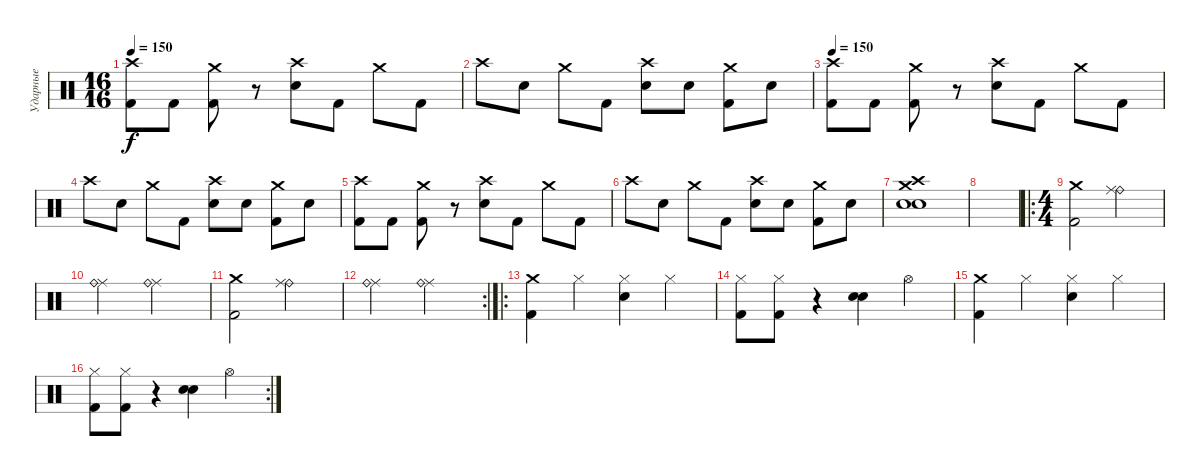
\track ("Ударные" "Ударные") {instrument percussion}
\staff {score}
\articulation defaults
\ts (16 16)
\tempo 150
\clef neutral
\ks c
("Crash high (hit)" "Kick (hit) 2").8{dy f} "Kick (hit) 2".8 ("Crash medium (hit)" "Kick (hit) 2").8 r.8 ("Crash high (hit)" "Electric Snare (hit)").8 "Kick (hit) 2".8 "Crash medium (hit)".8 "Kick (hit) 2".8 |
"Crash high (hit)".8 "Snare (hit) 2".8 "Crash medium (hit)".8 "Kick (hit) 2".8 ("Crash high (hit)" "Electric Snare (hit)").8 "Snare (hit) 2".8 ("Crash medium (hit)" "Kick (hit) 2").8 "Electric Snare (hit)".8 |
\tempo 150
("Crash high (hit)" "Kick (hit) 2").8 "Kick (hit) 2".8 ("Crash medium (hit)" "Kick (hit) 2").8 r.8 ("Crash high (hit)" "Electric Snare (hit)").8 "Kick (hit) 2".8 "Crash medium (hit)".8 "Kick (hit) 2".8 |
"Crash high (hit)".8 "Snare (hit) 2".8 "Crash medium (hit)".8 "Kick (hit) 2".8 ("Crash high (hit)" "Electric Snare (hit)").8 "Snare (hit) 2".8 ("Crash medium (hit)" "Kick (hit) 2").8 "Electric Snare (hit)".8 |
("Crash high (hit)" "Kick (hit) 2").8 "Kick (hit) 2".8 ("Crash medium (hit)" "Kick (hit) 2").8 r.8 ("Crash high (hit)" "Electric Snare (hit)").8 "Kick (hit) 2".8 "Crash medium (hit)".8 "Kick (hit) 2".8 |
"Crash high (hit)".8 "Snare (hit) 2".8 "Crash medium (hit)".8 "Kick (hit) 2".8 ("Crash high (hit)" "Electric Snare (hit)").8 "Snare (hit) 2".8 ("Crash medium (hit)" "Kick (hit) 2").8 "Electric Snare (hit)".8 |
("Crash high (hit)" "Snare (hit) 2" "Crash medium (hit)" "Electric Snare (hit)").1 |
|
\ro
\ts (4 4)
("Crash medium (hit)" "Kick (hit) 2").2 ("Ride (bell)" "Ride (middle)").2 |
("Ride (middle)" "Ride (bell)").2 ("Ride (middle)" "Ride (bell)").2 |
("Crash medium (hit)" "Kick (hit) 2").2 ("Ride (bell)" "Ride (middle)").2 |
\rc 2
("Ride (middle)" "Ride (bell)").2 ("Ride (middle)" "Ride (bell)").2 |
\ro
("Crash medium (hit)" "Kick (hit) 2").4 "Hi-Hat (closed)".4 ("Hi-Hat (closed)" "Electric Snare (hit)").4 "Hi-Hat (closed)".4 |
("Hi-Hat (closed)" "Kick (hit) 2").8 ("Hi-Hat (closed)" "Kick (hit) 2").8 r.4 ("Snare (hit) 2" "Electric Snare (hit)").4 "Hi-Hat (open)".4 |
("Crash medium (hit)" "Kick (hit) 2").4 "Hi-Hat (closed)".4 ("Hi-Hat (closed)" "Electric Snare (hit)").4 "Hi-Hat (closed)".4 |
\rc 2
("Hi-Hat (closed)" "Kick (hit) 2").8 ("Hi-Hat (closed)" "Kick (hit) 2").8 r.4 ("Snare (hit) 2" "Electric Snare (hit)").4 "Hi-Hat (open)".4
